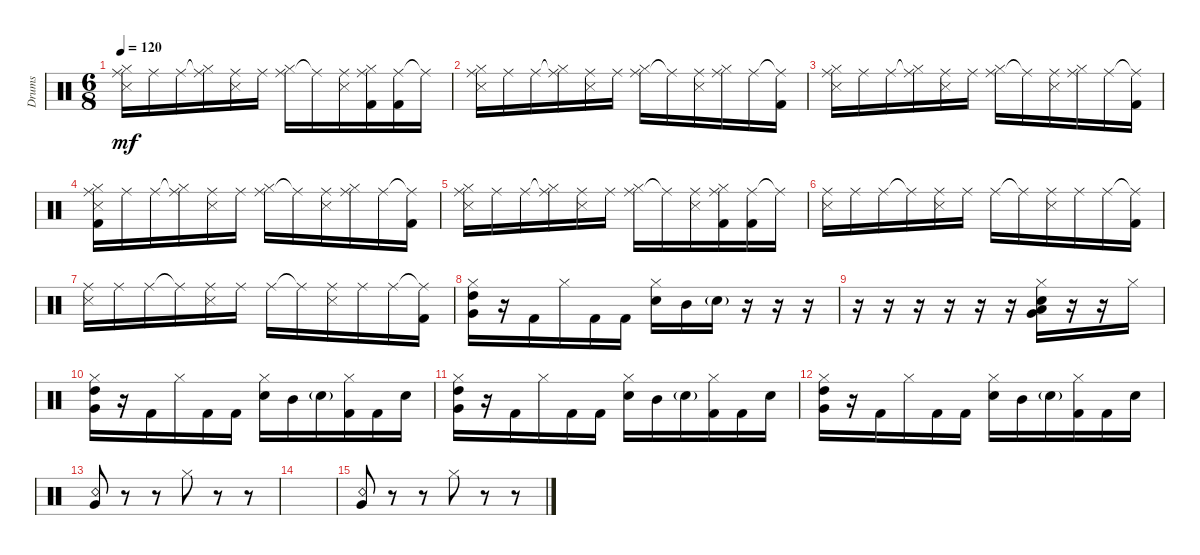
\defaultSystemsLayout 4
\bracketExtendMode groupsimilarinstruments
\otherSystemsTrackNameOrientation horizontal
\track ("Drumkit" "Drums") {instrument percussion}
\staff {score}
\articulation defaults
\ts (6 8)
\tempo 120
\clef neutral
\ks c
("Snare (side stick) 3" "Ride (middle)" "Hi-Hat (closed)").16{dy mf} "Ride (middle)".16 "Ride (middle)".16 ("Ride (middle)"{t} "Hi-Hat (closed)").16 ("Snare (side stick) 3" "Ride (middle)").16 "Ride (middle)".16 ("Ride (middle)" "Hi-Hat (closed)").16 "Ride (middle)"{t}.16 ("Snare (side stick) 3" "Ride (middle)").16 ("Ride (middle)" "Kick (hit) 2" "Hi-Hat (closed)").16 ("Ride (middle)" "Kick (hit) 2").16 "Ride (middle)"{t}.16 |
("Snare (side stick) 3" "Ride (middle)" "Hi-Hat (closed)").16 "Ride (middle)".16 "Ride (middle)".16 ("Ride (middle)"{t} "Hi-Hat (closed)").16 ("Snare (side stick) 3" "Ride (middle)").16 "Ride (middle)".16 ("Ride (middle)" "Hi-Hat (closed)").16 "Ride (middle)"{t}.16 ("Snare (side stick) 3" "Ride (middle)").16 ("Ride (middle)" "Hi-Hat (closed)").16 "Ride (middle)".16 ("Ride (middle)"{t} "Kick (hit) 2").16 |
("Snare (side stick) 3" "Ride (middle)" "Hi-Hat (closed)").16 "Ride (middle)".16 "Ride (middle)".16 ("Ride (middle)"{t} "Hi-Hat (closed)").16 ("Snare (side stick) 3" "Ride (middle)").16 "Ride (middle)".16 ("Ride (middle)" "Hi-Hat (closed)").16 "Ride (middle)"{t}.16 ("Snare (side stick) 3" "Ride (middle)").16 ("Ride (middle)" "Hi-Hat (closed)").16 "Ride (middle)".16 ("Ride (middle)"{t} "Kick (hit) 2").16 |
("Snare (side stick) 3" "Ride (middle)" "Hi-Hat (closed)" "Kick (hit) 2").16 "Ride (middle)".16 "Ride (middle)".16 ("Ride (middle)"{t} "Hi-Hat (closed)").16 ("Snare (side stick) 3" "Ride (middle)").16 "Ride (middle)".16 ("Ride (middle)" "Hi-Hat (closed)").16 "Ride (middle)"{t}.16 ("Snare (side stick) 3" "Ride (middle)").16 ("Ride (middle)" "Hi-Hat (closed)").16 "Ride (middle)".16 ("Ride (middle)"{t} "Kick (hit) 2").16 |
("Snare (side stick) 3" "Ride (middle)" "Hi-Hat (closed)").16 "Ride (middle)".16 "Ride (middle)".16 ("Ride (middle)"{t} "Hi-Hat (closed)").16 ("Snare (side stick) 3" "Ride (middle)").16 "Ride (middle)".16 ("Ride (middle)" "Hi-Hat (closed)").16 "Ride (middle)"{t}.16 ("Snare (side stick) 3" "Ride (middle)").16 ("Ride (middle)" "Kick (hit) 2" "Hi-Hat (closed)").16 ("Ride (middle)" "Kick (hit) 2").16 "Ride (middle)"{t}.16 |
("Snare (side stick) 3" "Ride (middle)").16 "Ride (middle)".16 "Ride (middle)".16 "Ride (middle)"{t}.16 ("Snare (side stick) 3" "Ride (middle)").16 "Ride (middle)".16 "Ride (middle)".16 "Ride (middle)"{t}.16 ("Snare (side stick) 3" "Ride (middle)").16 "Ride (middle)".16 "Ride (middle)".16 ("Ride (middle)"{t} "Kick (hit) 2").16 |
("Snare (side stick) 3" "Ride (middle)").16 "Ride (middle)".16 "Ride (middle)".16 "Ride (middle)"{t}.16 ("Snare (side stick) 3" "Ride (middle)").16 "Ride (middle)".16 "Ride (middle)".16 "Ride (middle)"{t}.16 ("Snare (side stick) 3" "Ride (middle)").16 "Ride (middle)".16 "Ride (middle)".16 ("Ride (middle)"{t} "Kick (hit) 2").16 |
("Very Low Tom (hit)" "Hi-Hat (closed)" "High Tom (hit)").16 r.16 "Kick (hit) 2".16 "Hi-Hat (closed)".16 "Kick (hit) 2".16 "Kick (hit) 2".16 ("Snare (hit) 2" "Hi-Hat (closed)").16 "Mid Tom (hit)".16 "Snare (hit) 2"{g}.16 r.16 r.16 r.16 |
r.16 r.16 r.16 r.16 r.16 r.16 ("Hi-Hat (closed)" "Very Low Tom (hit)" "Low Tom (hit)" "Snare (hit) 2").16 r.16 r.16 "Hi-Hat (closed)".16 |
("Very Low Tom (hit)" "Hi-Hat (closed)" "High Tom (hit)").16 r.16 "Kick (hit) 2".16 "Hi-Hat (closed)".16 "Kick (hit) 2".16 "Kick (hit) 2".16 ("Snare (hit) 2" "Hi-Hat (closed)").16 "Mid Tom (hit)".16 "Snare (hit) 2"{g}.16 ("Kick (hit) 2" "Hi-Hat (closed)").16 "Kick (hit) 2".16 "Snare (hit) 2".16 |
("Very Low Tom (hit)" "Hi-Hat (closed)" "High Tom (hit)").16 r.16 "Kick (hit) 2".16 "Hi-Hat (closed)".16 "Kick (hit) 2".16 "Kick (hit) 2".16 ("Snare (hit) 2" "Hi-Hat (closed)").16 "Mid Tom (hit)".16 "Snare (hit) 2"{g}.16 ("Kick (hit) 2" "Hi-Hat (closed)").16 "Kick (hit) 2".16 "Snare (hit) 2".16 |
("Very Low Tom (hit)" "Hi-Hat (closed)" "High Tom (hit)").16 r.16 "Kick (hit) 2".16 "Hi-Hat (closed)".16 "Kick (hit) 2".16 "Kick (hit) 2".16 ("Snare (hit) 2" "Hi-Hat (closed)").16 "Mid Tom (hit)".16 "Snare (hit) 2"{g}.16 ("Kick (hit) 2" "Hi-Hat (closed)").16 "Kick (hit) 2".16 "Snare (hit) 2".16 |
("Very Low Tom (hit)" "Snare (rim shot)").8 r.8 r.8 "Hi-Hat (closed)".8 r.8 r.8 |
|
("Very Low Tom (hit)" "Snare (rim shot)").8 r.8 r.8 "Hi-Hat (closed)".8 r.8 r.8
